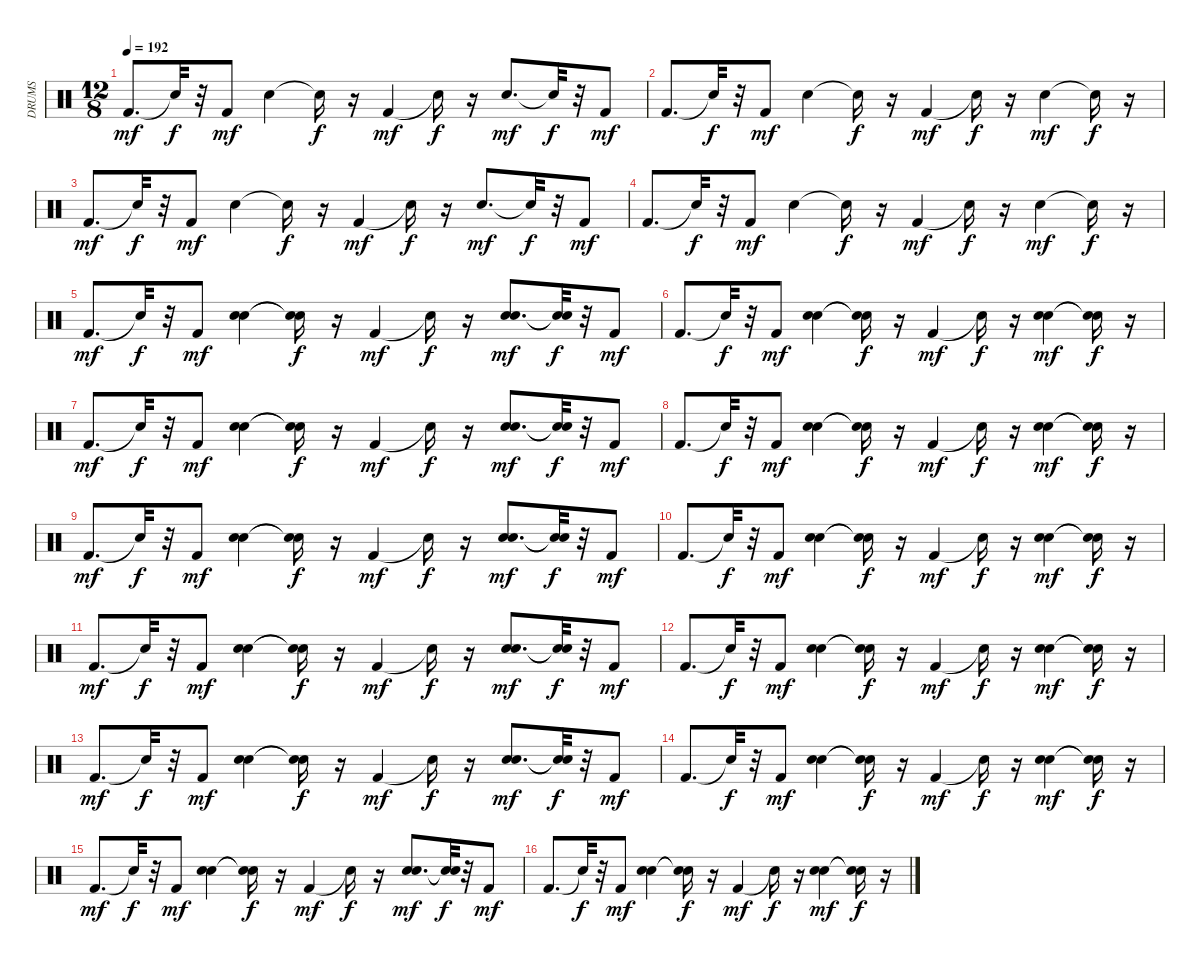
\track ("DRUMS" "DRUMS") {instrument percussion}
\staff {score}
\articulation defaults
\ts (12 8)
\tempo 192
\clef neutral
\ks c "Kick (hit) 2".8{d dy mf} "Snare (hit)"{t}.32{dy f}
r.32 "Kick (hit) 2".8{dy mf} "Snare (hit) 2".4 "Snare (hit)"{t}.16{dy f} r.16 "Kick (hit) 2".4{dy mf} "Snare (hit)"{t}.16{dy f} r.16 "Snare (hit) 2".8{d dy mf} "Snare (hit)"{t}.32{dy f} r.32 "Kick (hit) 2".8{dy mf} |
"Kick (hit) 2".8{d} "Snare (hit)"{t}.32{dy f} r.32 "Kick (hit) 2".8{dy mf} "Snare (hit) 2".4 "Snare (hit)"{t}.16{dy f} r.16 "Kick (hit) 2".4{dy mf} "Snare (hit)"{t}.16{dy f} r.16 "Snare (hit) 2".4{dy mf} "Snare (hit)"{t}.16{dy f} r.16 |
"Kick (hit) 2".8{d dy mf} "Snare (hit)"{t}.32{dy f} r.32 "Kick (hit) 2".8{dy mf} "Snare (hit) 2".4 "Snare (hit)"{t}.16{dy f} r.16 "Kick (hit) 2".4{dy mf} "Snare (hit)"{t}.16{dy f} r.16 "Snare (hit) 2".8{d dy mf} "Snare (hit)"{t}.32{dy f} r.32 "Kick (hit) 2".8{dy mf} |
"Kick (hit) 2".8{d} "Snare (hit)"{t}.32{dy f} r.32 "Kick (hit) 2".8{dy mf} "Snare (hit) 2".4 "Snare (hit)"{t}.16{dy f} r.16 "Kick (hit) 2".4{dy mf} "Snare (hit)"{t}.16{dy f} r.16 "Snare (hit) 2".4{dy mf} "Snare (hit)"{t}.16{dy f} r.16 |
"Kick (hit) 2".8{d dy mf} "Snare (hit)"{t}.32{dy f} r.32 "Kick (hit) 2".8{dy mf} ("Hand Clap (hit)" "Snare (hit) 2").4 ("Snare (hit)"{t} "Snare (hit)"{t}).16{dy f} r.16 "Kick (hit) 2".4{dy mf} "Snare (hit)"{t}.16{dy f} r.16 ("Hand Clap (hit)" "Snare (hit) 2").8{d dy mf} ("Snare (hit)"{t} "Snare (hit)"{t}).32{dy f} r.32 "Kick (hit) 2".8{dy mf} |
"Kick (hit) 2".8{d} "Snare (hit)"{t}.32{dy f} r.32 "Kick (hit) 2".8{dy mf} ("Hand Clap (hit)" "Snare (hit) 2").4 ("Snare (hit)"{t} "Snare (hit)"{t}).16{dy f} r.16 "Kick (hit) 2".4{dy mf} "Snare (hit)"{t}.16{dy f} r.16 ("Hand Clap (hit)" "Snare (hit) 2").4{dy mf} ("Snare (hit)"{t} "Snare (hit)"{t}).16{dy f} r.16 |
"Kick (hit) 2".8{d dy mf} "Snare (hit)"{t}.32{dy f} r.32 "Kick (hit) 2".8{dy mf} ("Hand Clap (hit)" "Snare (hit) 2").4 ("Snare (hit)"{t} "Snare (hit)"{t}).16{dy f} r.16 "Kick (hit) 2".4{dy mf} "Snare (hit)"{t}.16{dy f} r.16 ("Hand Clap (hit)" "Snare (hit) 2").8{d dy mf} ("Snare (hit)"{t} "Snare (hit)"{t}).32{dy f} r.32 "Kick (hit) 2".8{dy mf} |
"Kick (hit) 2".8{d} "Snare (hit)"{t}.32{dy f} r.32 "Kick (hit) 2".8{dy mf} ("Hand Clap (hit)" "Snare (hit) 2").4 ("Snare (hit)"{t} "Snare (hit)"{t}).16{dy f} r.16 "Kick (hit) 2".4{dy mf} "Snare (hit)"{t}.16{dy f} r.16 ("Hand Clap (hit)" "Snare (hit) 2").4{dy mf} ("Snare (hit)"{t} "Snare (hit)"{t}).16{dy f} r.16 |
"Kick (hit) 2".8{d dy mf} "Snare (hit)"{t}.32{dy f} r.32 "Kick (hit) 2".8{dy mf} ("Snare (hit) 2" "Hand Clap (hit)").4 ("Snare (hit)"{t} "Snare (hit)"{t}).16{dy f} r.16 "Kick (hit) 2".4{dy mf} "Snare (hit)"{t}.16{dy f} r.16 ("Snare (hit) 2" "Hand Clap (hit)").8{d dy mf} ("Snare (hit)"{t} "Snare (hit)"{t}).32{dy f} r.32 "Kick (hit) 2".8{dy mf} |
"Kick (hit) 2".8{d} "Snare (hit)"{t}.32{dy f} r.32 "Kick (hit) 2".8{dy mf} ("Snare (hit) 2" "Hand Clap (hit)").4 ("Snare (hit)"{t} "Snare (hit)"{t}).16{dy f} r.16 "Kick (hit) 2".4{dy mf} "Snare (hit)"{t}.16{dy f} r.16 ("Snare (hit) 2" "Hand Clap (hit)").4{dy mf} ("Snare (hit)"{t} "Snare (hit)"{t}).16{dy f} r.16 |
"Kick (hit) 2".8{d dy mf} "Snare (hit)"{t}.32{dy f} r.32 "Kick (hit) 2".8{dy mf} ("Snare (hit) 2" "Hand Clap (hit)").4 ("Snare (hit)"{t} "Snare (hit)"{t}).16{dy f} r.16 "Kick (hit) 2".4{dy mf} "Snare (hit)"{t}.16{dy f} r.16 ("Snare (hit) 2" "Hand Clap (hit)").8{d dy mf} ("Snare (hit)"{t} "Snare (hit)"{t}).32{dy f} r.32 "Kick (hit) 2".8{dy mf} |
"Kick (hit) 2".8{d} "Snare (hit)"{t}.32{dy f} r.32 "Kick (hit) 2".8{dy mf} ("Snare (hit) 2" "Hand Clap (hit)").4 ("Snare (hit)"{t} "Snare (hit)"{t}).16{dy f} r.16 "Kick (hit) 2".4{dy mf} "Snare (hit)"{t}.16{dy f} r.16 ("Snare (hit) 2" "Hand Clap (hit)").4{dy mf} ("Snare (hit)"{t} "Snare (hit)"{t}).16{dy f} r.16 |
"Kick (hit) 2".8{d dy mf} "Snare (hit)"{t}.32{dy f} r.32 "Kick (hit) 2".8{dy mf} ("Snare (hit) 2" "Hand Clap (hit)").4 ("Snare (hit)"{t} "Snare (hit)"{t}).16{dy f} r.16 "Kick (hit) 2".4{dy mf} "Snare (hit)"{t}.16{dy f} r.16 ("Snare (hit) 2" "Hand Clap (hit)").8{d dy mf} ("Snare (hit)"{t} "Snare (hit)"{t}).32{dy f} r.32 "Kick (hit) 2".8{dy mf} |
"Kick (hit) 2".8{d} "Snare (hit)"{t}.32{dy f} r.32 "Kick (hit) 2".8{dy mf} ("Snare (hit) 2" "Hand Clap (hit)").4 ("Snare (hit)"{t} "Snare (hit)"{t}).16{dy f} r.16 "Kick (hit) 2".4{dy mf} "Snare (hit)"{t}.16{dy f} r.16 ("Snare (hit) 2" "Hand Clap (hit)").4{dy mf} ("Snare (hit)"{t} "Snare (hit)"{t}).16{dy f} r.16 |
"Kick (hit) 2".8{d dy mf} "Snare (hit)"{t}.32{dy f} r.32 "Kick (hit) 2".8{dy mf} ("Snare (hit) 2" "Hand Clap (hit)").4 ("Snare (hit)"{t} "Snare (hit)"{t}).16{dy f} r.16 "Kick (hit) 2".4{dy mf} "Snare (hit)"{t}.16{dy f} r.16 ("Snare (hit) 2" "Hand Clap (hit)").8{d dy mf} ("Snare (hit)"{t} "Snare (hit)"{t}).32{dy f} r.32 "Kick (hit) 2".8{dy mf} |
"Kick (hit) 2".8{d} "Snare (hit)"{t}.32{dy f} r.32 "Kick (hit) 2".8{dy mf} ("Snare (hit) 2" "Hand Clap (hit)").4 ("Snare (hit)"{t} "Snare (hit)"{t}).16{dy f} r.16 "Kick (hit) 2".4{dy mf} "Snare (hit)"{t}.16{dy f} r.16 ("Snare (hit) 2" "Hand Clap (hit)").4{dy mf} ("Snare (hit)"{t} "Snare (hit)"{t}).16{dy f} r.16
